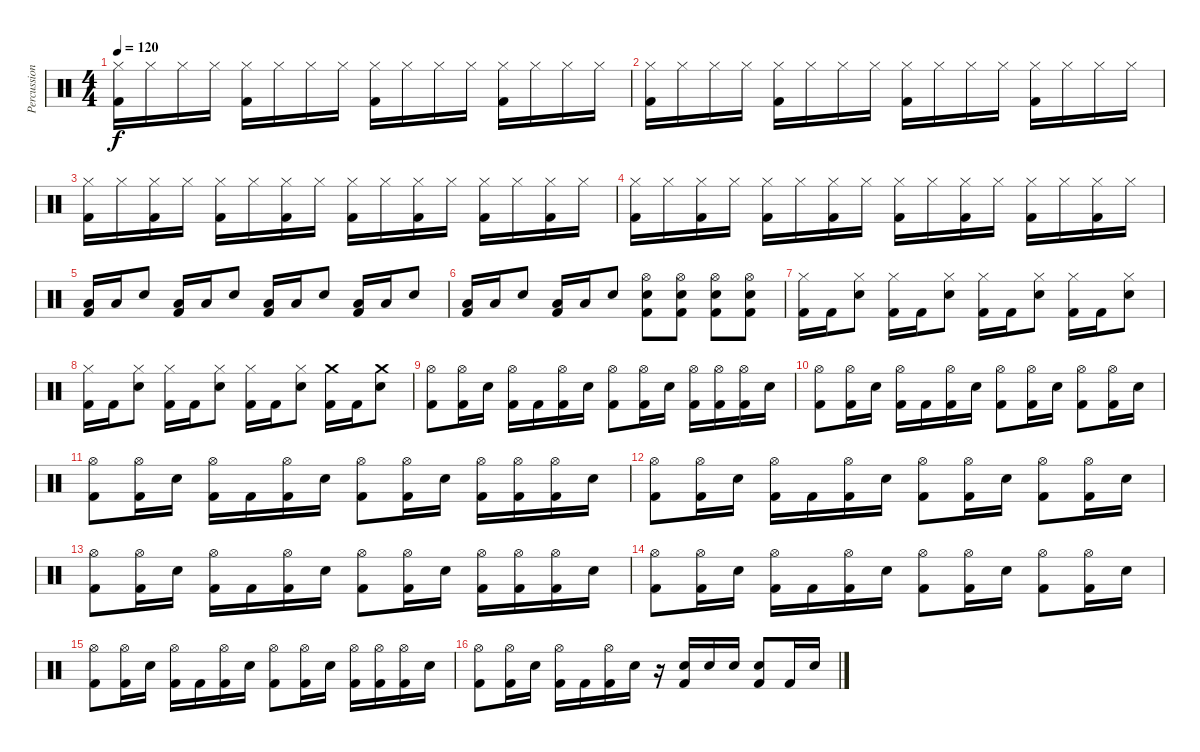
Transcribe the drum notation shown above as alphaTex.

\track ("Percussion" "Percussion") {instrument percussion}
\staff {score}
\articulation defaults
\ts (4 4)
\tempo 120
\clef neutral
\ks c
("Hi-Hat (closed)" "Kick (hit) 2").16{dy f} "Hi-Hat (closed)".16 "Hi-Hat (closed)".16 "Hi-Hat (closed)".16 ("Hi-Hat (closed)" "Kick (hit) 2").16 "Hi-Hat (closed)".16 "Hi-Hat (closed)".16 "Hi-Hat (closed)".16 ("Hi-Hat (closed)" "Kick (hit) 2").16 "Hi-Hat (closed)".16 "Hi-Hat (closed)".16 "Hi-Hat (closed)".16 ("Hi-Hat (closed)" "Kick (hit) 2").16 "Hi-Hat (closed)".16 "Hi-Hat (closed)".16 "Hi-Hat (closed)".16 |
("Hi-Hat (closed)" "Kick (hit) 2").16 "Hi-Hat (closed)".16 "Hi-Hat (closed)".16 "Hi-Hat (closed)".16 ("Hi-Hat (closed)" "Kick (hit) 2").16 "Hi-Hat (closed)".16 "Hi-Hat (closed)".16 "Hi-Hat (closed)".16 ("Hi-Hat (closed)" "Kick (hit) 2").16 "Hi-Hat (closed)".16 "Hi-Hat (closed)".16 "Hi-Hat (closed)".16 ("Hi-Hat (closed)" "Kick (hit) 2").16 "Hi-Hat (closed)".16 "Hi-Hat (closed)".16 "Hi-Hat (closed)".16 |
("Hi-Hat (closed)" "Kick (hit) 2").16 "Hi-Hat (closed)".16 ("Hi-Hat (closed)" "Kick (hit) 2").16 "Hi-Hat (closed)".16 ("Hi-Hat (closed)" "Kick (hit) 2").16 "Hi-Hat (closed)".16 ("Hi-Hat (closed)" "Kick (hit) 2").16 "Hi-Hat (closed)".16 ("Hi-Hat (closed)" "Kick (hit) 2").16 "Hi-Hat (closed)".16 ("Hi-Hat (closed)" "Kick (hit) 2").16 "Hi-Hat (closed)".16 ("Hi-Hat (closed)" "Kick (hit) 2").16 "Hi-Hat (closed)".16 ("Hi-Hat (closed)" "Kick (hit) 2").16 "Hi-Hat (closed)".16 |
("Hi-Hat (closed)" "Kick (hit) 2").16 "Hi-Hat (closed)".16 ("Hi-Hat (closed)" "Kick (hit) 2").16 "Hi-Hat (closed)".16 ("Hi-Hat (closed)" "Kick (hit) 2").16 "Hi-Hat (closed)".16 ("Hi-Hat (closed)" "Kick (hit) 2").16 "Hi-Hat (closed)".16 ("Hi-Hat (closed)" "Kick (hit) 2").16 "Hi-Hat (closed)".16 ("Hi-Hat (closed)" "Kick (hit) 2").16 "Hi-Hat (closed)".16 ("Hi-Hat (closed)" "Kick (hit) 2").16 "Hi-Hat (closed)".16 ("Hi-Hat (closed)" "Kick (hit) 2").16 "Hi-Hat (closed)".16 |
("Low Tom (hit)" "Kick (hit) 2").16 "Low Tom (hit)".16 "Snare (hit) 2".8 ("Low Tom (hit)" "Kick (hit) 2").16 "Low Tom (hit)".16 "Snare (hit) 2".8 ("Low Tom (hit)" "Kick (hit) 2").16 "Low Tom (hit)".16 "Snare (hit) 2".8 ("Low Tom (hit)" "Kick (hit) 2").16 "Low Tom (hit)".16 "Snare (hit) 2".8 |
("Low Tom (hit)" "Kick (hit) 2").16 "Low Tom (hit)".16 "Snare (hit) 2".8 ("Low Tom (hit)" "Kick (hit) 2").16 "Low Tom (hit)".16 "Snare (hit) 2".8 ("Hi-Hat (open)" "Snare (hit) 2" "Kick (hit) 2").8 ("Hi-Hat (open)" "Snare (hit) 2" "Kick (hit) 2").8 ("Hi-Hat (open)" "Snare (hit) 2" "Kick (hit) 2").8 ("Hi-Hat (open)" "Snare (hit) 2" "Kick (hit) 2").8 |
("Hi-Hat (closed)" "Kick (hit) 2").16 "Kick (hit) 2".16 ("Hi-Hat (closed)" "Snare (hit) 2").8 ("Hi-Hat (closed)" "Kick (hit) 2").16 "Kick (hit) 2".16 ("Hi-Hat (closed)" "Snare (hit) 2").8 ("Hi-Hat (closed)" "Kick (hit) 2").16 "Kick (hit) 2".16 ("Hi-Hat (closed)" "Snare (hit) 2").8 ("Hi-Hat (closed)" "Kick (hit) 2").16 "Kick (hit) 2".16 ("Hi-Hat (closed)" "Snare (hit) 2").8 |
("Hi-Hat (closed)" "Kick (hit) 2").16 "Kick (hit) 2".16 ("Hi-Hat (closed)" "Snare (hit) 2").8 ("Hi-Hat (closed)" "Kick (hit) 2").16 "Kick (hit) 2".16 ("Hi-Hat (closed)" "Snare (hit) 2").8 ("Hi-Hat (closed)" "Kick (hit) 2").16 "Kick (hit) 2".16 ("Hi-Hat (closed)" "Snare (hit) 2").8 ("Crash medium (hit)" "Kick (hit) 2").16 "Kick (hit) 2".16 ("Crash medium (hit)" "Snare (hit) 2").8 |
("Hi-Hat (open)" "Kick (hit) 2").8 ("Hi-Hat (open)" "Kick (hit) 2").16 "Snare (hit) 2".16 ("Hi-Hat (open)" "Kick (hit) 2").16 "Kick (hit) 2".16 ("Hi-Hat (open)" "Kick (hit) 2").16 "Snare (hit) 2".16 ("Hi-Hat (open)" "Kick (hit) 2").8 ("Hi-Hat (open)" "Kick (hit) 2").16 "Snare (hit) 2".16 ("Hi-Hat (open)" "Kick (hit) 2").16 ("Hi-Hat (open)" "Kick (hit) 2").16 ("Hi-Hat (open)" "Kick (hit) 2").16 "Snare (hit) 2".16 |
("Hi-Hat (open)" "Kick (hit) 2").8 ("Hi-Hat (open)" "Kick (hit) 2").16 "Snare (hit) 2".16 ("Hi-Hat (open)" "Kick (hit) 2").16 "Kick (hit) 2".16 ("Hi-Hat (open)" "Kick (hit) 2").16 "Snare (hit) 2".16 ("Hi-Hat (open)" "Kick (hit) 2").8 ("Hi-Hat (open)" "Kick (hit) 2").16 "Snare (hit) 2".16 ("Hi-Hat (open)" "Kick (hit) 2").8 ("Hi-Hat (open)" "Kick (hit) 2").16 "Snare (hit) 2".16 |
("Hi-Hat (open)" "Kick (hit) 2").8 ("Hi-Hat (open)" "Kick (hit) 2").16 "Snare (hit) 2".16 ("Hi-Hat (open)" "Kick (hit) 2").16 "Kick (hit) 2".16 ("Hi-Hat (open)" "Kick (hit) 2").16 "Snare (hit) 2".16 ("Hi-Hat (open)" "Kick (hit) 2").8 ("Hi-Hat (open)" "Kick (hit) 2").16 "Snare (hit) 2".16 ("Hi-Hat (open)" "Kick (hit) 2").16 ("Hi-Hat (open)" "Kick (hit) 2").16 ("Hi-Hat (open)" "Kick (hit) 2").16 "Snare (hit) 2".16 |
("Hi-Hat (open)" "Kick (hit) 2").8 ("Hi-Hat (open)" "Kick (hit) 2").16 "Snare (hit) 2".16 ("Hi-Hat (open)" "Kick (hit) 2").16 "Kick (hit) 2".16 ("Hi-Hat (open)" "Kick (hit) 2").16 "Snare (hit) 2".16 ("Hi-Hat (open)" "Kick (hit) 2").8 ("Hi-Hat (open)" "Kick (hit) 2").16 "Snare (hit) 2".16 ("Hi-Hat (open)" "Kick (hit) 2").8 ("Hi-Hat (open)" "Kick (hit) 2").16 "Snare (hit) 2".16 |
("Hi-Hat (open)" "Kick (hit) 2").8 ("Hi-Hat (open)" "Kick (hit) 2").16 "Snare (hit) 2".16 ("Hi-Hat (open)" "Kick (hit) 2").16 "Kick (hit) 2".16 ("Hi-Hat (open)" "Kick (hit) 2").16 "Snare (hit) 2".16 ("Hi-Hat (open)" "Kick (hit) 2").8 ("Hi-Hat (open)" "Kick (hit) 2").16 "Snare (hit) 2".16 ("Hi-Hat (open)" "Kick (hit) 2").16 ("Hi-Hat (open)" "Kick (hit) 2").16 ("Hi-Hat (open)" "Kick (hit) 2").16 "Snare (hit) 2".16 |
("Hi-Hat (open)" "Kick (hit) 2").8 ("Hi-Hat (open)" "Kick (hit) 2").16 "Snare (hit) 2".16 ("Hi-Hat (open)" "Kick (hit) 2").16 "Kick (hit) 2".16 ("Hi-Hat (open)" "Kick (hit) 2").16 "Snare (hit) 2".16 ("Hi-Hat (open)" "Kick (hit) 2").8 ("Hi-Hat (open)" "Kick (hit) 2").16 "Snare (hit) 2".16 ("Hi-Hat (open)" "Kick (hit) 2").8 ("Hi-Hat (open)" "Kick (hit) 2").16 "Snare (hit) 2".16 |
("Hi-Hat (open)" "Kick (hit) 2").8 ("Hi-Hat (open)" "Kick (hit) 2").16 "Snare (hit) 2".16 ("Hi-Hat (open)" "Kick (hit) 2").16 "Kick (hit) 2".16 ("Hi-Hat (open)" "Kick (hit) 2").16 "Snare (hit) 2".16 ("Hi-Hat (open)" "Kick (hit) 2").8 ("Hi-Hat (open)" "Kick (hit) 2").16 "Snare (hit) 2".16 ("Hi-Hat (open)" "Kick (hit) 2").16 ("Hi-Hat (open)" "Kick (hit) 2").16 ("Hi-Hat (open)" "Kick (hit) 2").16 "Snare (hit) 2".16 |
("Hi-Hat (open)" "Kick (hit) 2").8 ("Hi-Hat (open)" "Kick (hit) 2").16 "Snare (hit) 2".16 ("Hi-Hat (open)" "Kick (hit) 2").16 "Kick (hit) 2".16 ("Hi-Hat (open)" "Kick (hit) 2").16 "Snare (hit) 2".16 r.16 ("Snare (hit) 2" "Kick (hit) 2").16 "Snare (hit) 2".16 "Snare (hit) 2".16 ("Snare (hit) 2" "Kick (hit) 2").8 "Kick (hit) 2".16 "Snare (hit) 2".16
